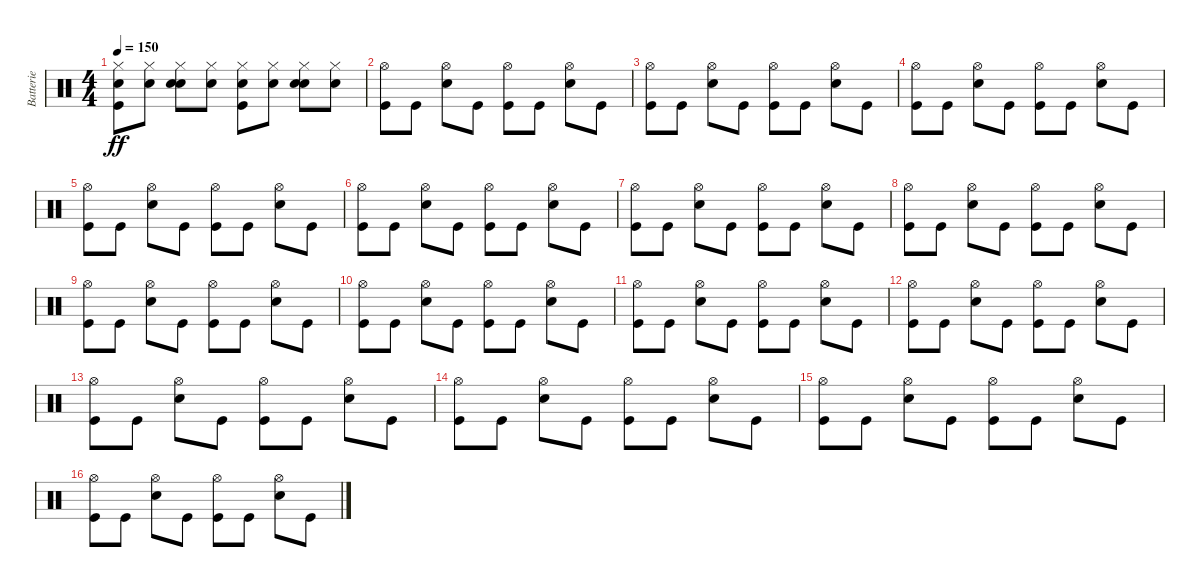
\track ("Batterie" "Batterie") {instrument percussion}
\staff {score}
\articulation defaults
\ts (4 4)
\tempo 150
\clef neutral
\ks c
("Kick (hit)" "Hi-Hat (closed)" "Electric Snare (hit)").8{dy ff} ("Hi-Hat (closed)" "Electric Snare (hit)").8 ("Electric Snare (hit)" "Hi-Hat (closed)" "Electric Snare (hit)").8 ("Hi-Hat (closed)" "Electric Snare (hit)").8 ("Kick (hit)" "Hi-Hat (closed)" "Electric Snare (hit)").8 ("Hi-Hat (closed)" "Electric Snare (hit)").8 ("Electric Snare (hit)" "Hi-Hat (closed)" "Electric Snare (hit)").8 ("Hi-Hat (closed)" "Electric Snare (hit)").8 |
("Kick (hit)" "Hi-Hat (open)").8 "Kick (hit)".8 ("Electric Snare (hit)" "Hi-Hat (open)").8 "Kick (hit)".8 ("Kick (hit)" "Hi-Hat (open)").8 "Kick (hit)".8 ("Electric Snare (hit)" "Hi-Hat (open)").8 "Kick (hit)".8 |
("Kick (hit)" "Hi-Hat (open)").8 "Kick (hit)".8 ("Electric Snare (hit)" "Hi-Hat (open)").8 "Kick (hit)".8 ("Kick (hit)" "Hi-Hat (open)").8 "Kick (hit)".8 ("Electric Snare (hit)" "Hi-Hat (open)").8 "Kick (hit)".8 |
("Kick (hit)" "Hi-Hat (open)").8 "Kick (hit)".8 ("Electric Snare (hit)" "Hi-Hat (open)").8 "Kick (hit)".8 ("Kick (hit)" "Hi-Hat (open)").8 "Kick (hit)".8 ("Electric Snare (hit)" "Hi-Hat (open)").8 "Kick (hit)".8 |
("Kick (hit)" "Hi-Hat (open)").8 "Kick (hit)".8 ("Electric Snare (hit)" "Hi-Hat (open)").8 "Kick (hit)".8 ("Kick (hit)" "Hi-Hat (open)").8 "Kick (hit)".8 ("Electric Snare (hit)" "Hi-Hat (open)").8 "Kick (hit)".8 |
("Kick (hit)" "Hi-Hat (open)").8 "Kick (hit)".8 ("Electric Snare (hit)" "Hi-Hat (open)").8 "Kick (hit)".8 ("Kick (hit)" "Hi-Hat (open)").8 "Kick (hit)".8 ("Electric Snare (hit)" "Hi-Hat (open)").8 "Kick (hit)".8 |
("Kick (hit)" "Hi-Hat (open)").8 "Kick (hit)".8 ("Electric Snare (hit)" "Hi-Hat (open)").8 "Kick (hit)".8 ("Kick (hit)" "Hi-Hat (open)").8 "Kick (hit)".8 ("Electric Snare (hit)" "Hi-Hat (open)").8 "Kick (hit)".8 |
("Kick (hit)" "Hi-Hat (open)").8 "Kick (hit)".8 ("Electric Snare (hit)" "Hi-Hat (open)").8 "Kick (hit)".8 ("Kick (hit)" "Hi-Hat (open)").8 "Kick (hit)".8 ("Electric Snare (hit)" "Hi-Hat (open)").8 "Kick (hit)".8 |
("Kick (hit)" "Hi-Hat (open)").8 "Kick (hit)".8 ("Electric Snare (hit)" "Hi-Hat (open)").8 "Kick (hit)".8 ("Kick (hit)" "Hi-Hat (open)").8 "Kick (hit)".8 ("Electric Snare (hit)" "Hi-Hat (open)").8 "Kick (hit)".8 |
("Kick (hit)" "Hi-Hat (open)").8 "Kick (hit)".8 ("Electric Snare (hit)" "Hi-Hat (open)").8 "Kick (hit)".8 ("Kick (hit)" "Hi-Hat (open)").8 "Kick (hit)".8 ("Electric Snare (hit)" "Hi-Hat (open)").8 "Kick (hit)".8 |
("Kick (hit)" "Hi-Hat (open)").8 "Kick (hit)".8 ("Electric Snare (hit)" "Hi-Hat (open)").8 "Kick (hit)".8 ("Kick (hit)" "Hi-Hat (open)").8 "Kick (hit)".8 ("Electric Snare (hit)" "Hi-Hat (open)").8 "Kick (hit)".8 |
("Kick (hit)" "Hi-Hat (open)").8 "Kick (hit)".8 ("Electric Snare (hit)" "Hi-Hat (open)").8 "Kick (hit)".8 ("Kick (hit)" "Hi-Hat (open)").8 "Kick (hit)".8 ("Electric Snare (hit)" "Hi-Hat (open)").8 "Kick (hit)".8 |
("Kick (hit)" "Hi-Hat (open)").8 "Kick (hit)".8 ("Electric Snare (hit)" "Hi-Hat (open)").8 "Kick (hit)".8 ("Kick (hit)" "Hi-Hat (open)").8 "Kick (hit)".8 ("Electric Snare (hit)" "Hi-Hat (open)").8 "Kick (hit)".8 |
("Kick (hit)" "Hi-Hat (open)").8 "Kick (hit)".8 ("Electric Snare (hit)" "Hi-Hat (open)").8 "Kick (hit)".8 ("Kick (hit)" "Hi-Hat (open)").8 "Kick (hit)".8 ("Electric Snare (hit)" "Hi-Hat (open)").8 "Kick (hit)".8 |
("Kick (hit)" "Hi-Hat (open)").8 "Kick (hit)".8 ("Electric Snare (hit)" "Hi-Hat (open)").8 "Kick (hit)".8 ("Kick (hit)" "Hi-Hat (open)").8 "Kick (hit)".8 ("Electric Snare (hit)" "Hi-Hat (open)").8 "Kick (hit)".8 |
("Kick (hit)" "Hi-Hat (open)").8 "Kick (hit)".8 ("Electric Snare (hit)" "Hi-Hat (open)").8 "Kick (hit)".8 ("Kick (hit)" "Hi-Hat (open)").8 "Kick (hit)".8 ("Electric Snare (hit)" "Hi-Hat (open)").8 "Kick (hit)".8
